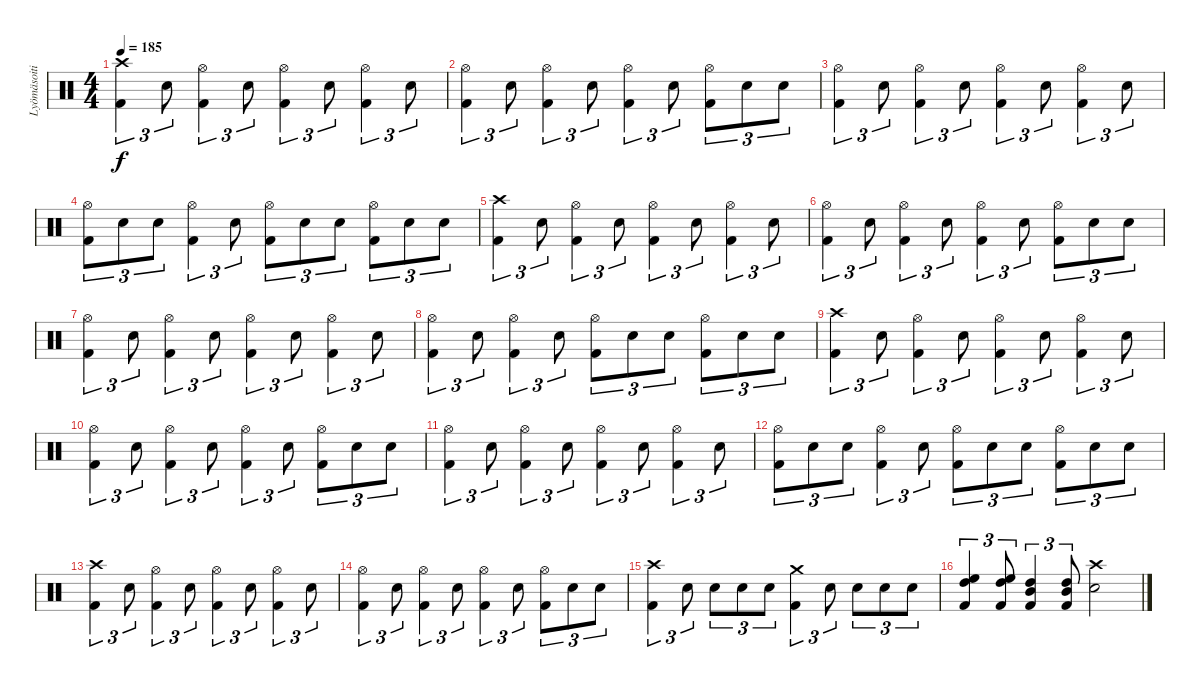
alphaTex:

\track ("Lyömäsoitin" "Lyömäsoiti") {instrument percussion}
\staff {score}
\articulation defaults
\ts (4 4)
\tempo 185
\clef neutral
\ks c
("Crash high (hit)" "Kick (hit) 2").4{tu (3 2) dy f} "Snare (hit) 2".8{tu (3 2)} ("Hi-Hat (open)" "Kick (hit) 2").4{tu (3 2)} "Snare (hit) 2".8{tu (3 2)} ("Hi-Hat (open)" "Kick (hit) 2").4{tu (3 2)} "Snare (hit) 2".8{tu (3 2)} ("Hi-Hat (open)" "Kick (hit) 2").4{tu (3 2)} "Snare (hit) 2".8{tu (3 2)} |
("Hi-Hat (open)" "Kick (hit) 2").4{tu (3 2)} "Snare (hit) 2".8{tu (3 2)} ("Hi-Hat (open)" "Kick (hit) 2").4{tu (3 2)} "Snare (hit) 2".8{tu (3 2)} ("Hi-Hat (open)" "Kick (hit) 2").4{tu (3 2)} "Snare (hit) 2".8{tu (3 2)} ("Hi-Hat (open)" "Kick (hit) 2").8{tu (3 2)} "Snare (hit) 2".8{tu (3 2)} "Snare (hit) 2".8{tu (3 2)} |
("Hi-Hat (open)" "Kick (hit) 2").4{tu (3 2)} "Snare (hit) 2".8{tu (3 2)} ("Hi-Hat (open)" "Kick (hit) 2").4{tu (3 2)} "Snare (hit) 2".8{tu (3 2)} ("Hi-Hat (open)" "Kick (hit) 2").4{tu (3 2)} "Snare (hit) 2".8{tu (3 2)} ("Hi-Hat (open)" "Kick (hit) 2").4{tu (3 2)} "Snare (hit) 2".8{tu (3 2)} |
("Hi-Hat (open)" "Kick (hit) 2").8{tu (3 2)} "Snare (hit) 2".8{tu (3 2)} "Snare (hit) 2".8{tu (3 2)} ("Hi-Hat (open)" "Kick (hit) 2").4{tu (3 2)} "Snare (hit) 2".8{tu (3 2)} ("Hi-Hat (open)" "Kick (hit) 2").8{tu (3 2)} "Snare (hit) 2".8{tu (3 2)} "Snare (hit) 2".8{tu (3 2)} ("Hi-Hat (open)" "Kick (hit) 2").8{tu (3 2)} "Snare (hit) 2".8{tu (3 2)} "Snare (hit) 2".8{tu (3 2)} |
("Crash high (hit)" "Kick (hit) 2").4{tu (3 2)} "Snare (hit) 2".8{tu (3 2)} ("Hi-Hat (open)" "Kick (hit) 2").4{tu (3 2)} "Snare (hit) 2".8{tu (3 2)} ("Hi-Hat (open)" "Kick (hit) 2").4{tu (3 2)} "Snare (hit) 2".8{tu (3 2)} ("Hi-Hat (open)" "Kick (hit) 2").4{tu (3 2)} "Snare (hit) 2".8{tu (3 2)} |
("Hi-Hat (open)" "Kick (hit) 2").4{tu (3 2)} "Snare (hit) 2".8{tu (3 2)} ("Hi-Hat (open)" "Kick (hit) 2").4{tu (3 2)} "Snare (hit) 2".8{tu (3 2)} ("Hi-Hat (open)" "Kick (hit) 2").4{tu (3 2)} "Snare (hit) 2".8{tu (3 2)} ("Hi-Hat (open)" "Kick (hit) 2").8{tu (3 2)} "Snare (hit) 2".8{tu (3 2)} "Snare (hit) 2".8{tu (3 2)} |
("Hi-Hat (open)" "Kick (hit) 2").4{tu (3 2)} "Snare (hit) 2".8{tu (3 2)} ("Hi-Hat (open)" "Kick (hit) 2").4{tu (3 2)} "Snare (hit) 2".8{tu (3 2)} ("Hi-Hat (open)" "Kick (hit) 2").4{tu (3 2)} "Snare (hit) 2".8{tu (3 2)} ("Hi-Hat (open)" "Kick (hit) 2").4{tu (3 2)} "Snare (hit) 2".8{tu (3 2)} |
("Hi-Hat (open)" "Kick (hit) 2").4{tu (3 2)} "Snare (hit) 2".8{tu (3 2)} ("Hi-Hat (open)" "Kick (hit) 2").4{tu (3 2)} "Snare (hit) 2".8{tu (3 2)} ("Hi-Hat (open)" "Kick (hit) 2").8{tu (3 2)} "Snare (hit) 2".8{tu (3 2)} "Snare (hit) 2".8{tu (3 2)} ("Hi-Hat (open)" "Kick (hit) 2").8{tu (3 2)} "Snare (hit) 2".8{tu (3 2)} "Snare (hit) 2".8{tu (3 2)} |
("Crash high (hit)" "Kick (hit) 2").4{tu (3 2)} "Snare (hit) 2".8{tu (3 2)} ("Hi-Hat (open)" "Kick (hit) 2").4{tu (3 2)} "Snare (hit) 2".8{tu (3 2)} ("Hi-Hat (open)" "Kick (hit) 2").4{tu (3 2)} "Snare (hit) 2".8{tu (3 2)} ("Hi-Hat (open)" "Kick (hit) 2").4{tu (3 2)} "Snare (hit) 2".8{tu (3 2)} |
("Hi-Hat (open)" "Kick (hit) 2").4{tu (3 2)} "Snare (hit) 2".8{tu (3 2)} ("Hi-Hat (open)" "Kick (hit) 2").4{tu (3 2)} "Snare (hit) 2".8{tu (3 2)} ("Hi-Hat (open)" "Kick (hit) 2").4{tu (3 2)} "Snare (hit) 2".8{tu (3 2)} ("Hi-Hat (open)" "Kick (hit) 2").8{tu (3 2)} "Snare (hit) 2".8{tu (3 2)} "Snare (hit) 2".8{tu (3 2)} |
("Hi-Hat (open)" "Kick (hit) 2").4{tu (3 2)} "Snare (hit) 2".8{tu (3 2)} ("Hi-Hat (open)" "Kick (hit) 2").4{tu (3 2)} "Snare (hit) 2".8{tu (3 2)} ("Hi-Hat (open)" "Kick (hit) 2").4{tu (3 2)} "Snare (hit) 2".8{tu (3 2)} ("Hi-Hat (open)" "Kick (hit) 2").4{tu (3 2)} "Snare (hit) 2".8{tu (3 2)} |
("Hi-Hat (open)" "Kick (hit) 2").8{tu (3 2)} "Snare (hit) 2".8{tu (3 2)} "Snare (hit) 2".8{tu (3 2)} ("Hi-Hat (open)" "Kick (hit) 2").4{tu (3 2)} "Snare (hit) 2".8{tu (3 2)} ("Hi-Hat (open)" "Kick (hit) 2").8{tu (3 2)} "Snare (hit) 2".8{tu (3 2)} "Snare (hit) 2".8{tu (3 2)} ("Hi-Hat (open)" "Kick (hit) 2").8{tu (3 2)} "Snare (hit) 2".8{tu (3 2)} "Snare (hit) 2".8{tu (3 2)} |
("Crash high (hit)" "Kick (hit) 2").4{tu (3 2)} "Snare (hit) 2".8{tu (3 2)} ("Hi-Hat (open)" "Kick (hit) 2").4{tu (3 2)} "Snare (hit) 2".8{tu (3 2)} ("Hi-Hat (open)" "Kick (hit) 2").4{tu (3 2)} "Snare (hit) 2".8{tu (3 2)} ("Hi-Hat (open)" "Kick (hit) 2").4{tu (3 2)} "Snare (hit) 2".8{tu (3 2)} |
("Hi-Hat (open)" "Kick (hit) 2").4{tu (3 2)} "Snare (hit) 2".8{tu (3 2)} ("Hi-Hat (open)" "Kick (hit) 2").4{tu (3 2)} "Snare (hit) 2".8{tu (3 2)} ("Hi-Hat (open)" "Kick (hit) 2").4{tu (3 2)} "Snare (hit) 2".8{tu (3 2)} ("Hi-Hat (open)" "Kick (hit) 2").8{tu (3 2)} "Snare (hit) 2".8{tu (3 2)} "Snare (hit) 2".8{tu (3 2)} |
("Crash high (hit)" "Kick (hit) 2").4{tu (3 2)} "Snare (hit) 2".8{tu (3 2)} "Snare (hit) 2".8{tu (3 2)} "Snare (hit) 2".8{tu (3 2)} "Snare (hit) 2".8{tu (3 2)} ("Crash medium (hit)" "Kick (hit) 2").4{tu (3 2)} "Snare (hit) 2".8{tu (3 2)} "Snare (hit) 2".8{tu (3 2)} "Snare (hit) 2".8{tu (3 2)} "Snare (hit) 2".8{tu (3 2)} |
("High Floor Tom (hit)" "High Tom (hit)" "Kick (hit) 2").4{tu (3 2)} ("High Floor Tom (hit)" "High Tom (hit)" "Kick (hit) 2").8{tu (3 2)} ("High Tom (hit)" "Mid Tom (hit)" "Kick (hit) 2").4{tu (3 2)} ("High Tom (hit)" "Mid Tom (hit)" "Kick (hit) 2").8{tu (3 2)} ("Crash high (hit)" "Snare (hit) 2").2
